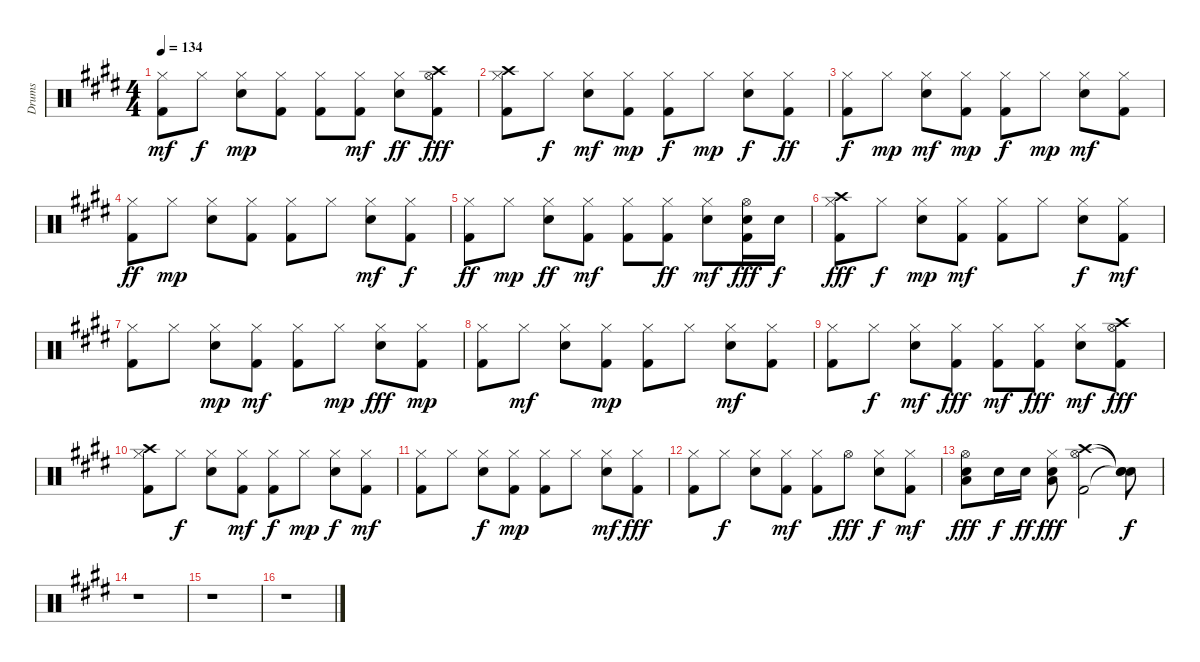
\track ("Drums" "Drums") {instrument percussion}
\staff {score}
\articulation defaults
\ts (4 4)
\tempo 134
\clef neutral
\ks e
("Kick (hit) 2" "Hi-Hat (closed)").8{dy mf} "Hi-Hat (closed)".8{dy f} ("Snare (hit) 2" "Hi-Hat (closed)").8{dy mp} ("Kick (hit) 2" "Hi-Hat (closed)").8 ("Kick (hit) 2" "Hi-Hat (closed)").8 ("Kick (hit) 2" "Hi-Hat (closed)").8{dy mf} ("Snare (hit) 2" "Hi-Hat (closed)").8{dy ff} ("Kick (hit) 2" "Hi-Hat (open)" "Crash high (hit)").8{dy fff} |
("Kick (hit) 2" "Hi-Hat (closed)" "Crash high (hit)").8 "Hi-Hat (closed)".8{dy f} ("Snare (hit) 2" "Hi-Hat (closed)").8{dy mf} ("Kick (hit) 2" "Hi-Hat (closed)").8{dy mp} ("Kick (hit) 2" "Hi-Hat (closed)").8{dy f} "Hi-Hat (closed)".8{dy mp} ("Snare (hit) 2" "Hi-Hat (closed)").8{dy f} ("Kick (hit) 2" "Hi-Hat (closed)").8{dy ff} |
("Kick (hit) 2" "Hi-Hat (closed)").8{dy f} "Hi-Hat (closed)".8{dy mp} ("Snare (hit) 2" "Hi-Hat (closed)").8{dy mf} ("Kick (hit) 2" "Hi-Hat (closed)").8{dy mp} ("Kick (hit) 2" "Hi-Hat (closed)").8{dy f} "Hi-Hat (closed)".8{dy mp} ("Snare (hit) 2" "Hi-Hat (closed)").8{dy mf} ("Kick (hit) 2" "Hi-Hat (closed)").8 |
("Kick (hit) 2" "Hi-Hat (closed)").8{dy ff} "Hi-Hat (closed)".8{dy mp} ("Snare (hit) 2" "Hi-Hat (closed)").8 ("Kick (hit) 2" "Hi-Hat (closed)").8 ("Kick (hit) 2" "Hi-Hat (closed)").8 "Hi-Hat (closed)".8 ("Snare (hit) 2" "Hi-Hat (closed)").8{dy mf} ("Kick (hit) 2" "Hi-Hat (closed)").8{dy f} |
("Kick (hit) 2" "Hi-Hat (closed)").8{dy ff} "Hi-Hat (closed)".8{dy mp} ("Snare (hit) 2" "Hi-Hat (closed)").8{dy ff} ("Kick (hit) 2" "Hi-Hat (closed)").8{dy mf} ("Kick (hit) 2" "Hi-Hat (closed)").8 ("Kick (hit) 2" "Hi-Hat (closed)").8{dy ff} ("Snare (hit) 2" "Hi-Hat (closed)").8{dy mf} ("Kick (hit) 2" "Snare (hit) 2" "Hi-Hat (open)").16{dy fff} "Snare (hit) 2".16{dy f} |
("Kick (hit) 2" "Hi-Hat (closed)" "Crash high (hit)").8{dy fff} "Hi-Hat (closed)".8{dy f} ("Snare (hit) 2" "Hi-Hat (closed)").8{dy mp} ("Kick (hit) 2" "Hi-Hat (closed)").8{dy mf} ("Kick (hit) 2" "Hi-Hat (closed)").8 "Hi-Hat (closed)".8 ("Snare (hit) 2" "Hi-Hat (closed)").8{dy f} ("Kick (hit) 2" "Hi-Hat (closed)").8{dy mf} |
("Kick (hit) 2" "Hi-Hat (closed)").8 "Hi-Hat (closed)".8 ("Snare (hit) 2" "Hi-Hat (closed)").8{dy mp} ("Kick (hit) 2" "Hi-Hat (closed)").8{dy mf} ("Kick (hit) 2" "Hi-Hat (closed)").8 "Hi-Hat (closed)".8{dy mp} ("Snare (hit) 2" "Hi-Hat (closed)").8{dy fff} ("Kick (hit) 2" "Hi-Hat (closed)").8{dy mp} |
("Kick (hit) 2" "Hi-Hat (closed)").8 "Hi-Hat (closed)".8{dy mf} ("Snare (hit) 2" "Hi-Hat (closed)").8 ("Kick (hit) 2" "Hi-Hat (closed)").8{dy mp} ("Kick (hit) 2" "Hi-Hat (closed)").8 "Hi-Hat (closed)".8 ("Snare (hit) 2" "Hi-Hat (closed)").8{dy mf} ("Kick (hit) 2" "Hi-Hat (closed)").8 |
("Kick (hit) 2" "Hi-Hat (closed)").8 "Hi-Hat (closed)".8{dy f} ("Snare (hit) 2" "Hi-Hat (closed)").8{dy mf} ("Kick (hit) 2" "Hi-Hat (closed)").8{dy fff} ("Kick (hit) 2" "Hi-Hat (closed)").8{dy mf} ("Kick (hit) 2" "Hi-Hat (closed)").8{dy fff} ("Snare (hit) 2" "Hi-Hat (closed)").8{dy mf} ("Kick (hit) 2" "Hi-Hat (open)" "Crash high (hit)").8{dy fff} |
("Kick (hit) 2" "Hi-Hat (closed)" "Crash high (hit)").8 "Hi-Hat (closed)".8{dy f} ("Snare (hit) 2" "Hi-Hat (closed)").8 ("Kick (hit) 2" "Hi-Hat (closed)").8{dy mf} ("Kick (hit) 2" "Hi-Hat (closed)").8{dy f} "Hi-Hat (closed)".8{dy mp} ("Snare (hit) 2" "Hi-Hat (closed)").8{dy f} ("Kick (hit) 2" "Hi-Hat (closed)").8{dy mf} |
("Kick (hit) 2" "Hi-Hat (closed)").8 "Hi-Hat (closed)".8 ("Snare (hit) 2" "Hi-Hat (closed)").8{dy f} ("Kick (hit) 2" "Hi-Hat (closed)").8{dy mp} ("Kick (hit) 2" "Hi-Hat (closed)").8 "Hi-Hat (closed)".8 ("Snare (hit) 2" "Hi-Hat (closed)").8{dy mf} ("Kick (hit) 2" "Hi-Hat (closed)").8{dy fff} |
("Kick (hit) 2" "Hi-Hat (closed)").8 "Hi-Hat (closed)".8{dy f} ("Snare (hit) 2" "Hi-Hat (closed)").8 ("Kick (hit) 2" "Hi-Hat (closed)").8{dy mf} ("Kick (hit) 2" "Hi-Hat (closed)").8 "Hi-Hat (open)".8{dy fff} ("Snare (hit) 2" "Hi-Hat (closed)").8{dy f} ("Kick (hit) 2" "Hi-Hat (closed)").8{dy mf} |
("Snare (hit) 2" "Low Floor Tom (hit)" "Hi-Hat (open)").8{dy fff} "Snare (hit) 2".16{dy f} "Snare (hit) 2".16{dy ff} ("Snare (hit) 2" "Hi-Hat (closed)" "Low Tom (hit)").8{dy fff} ("Kick (hit) 2" "Hi-Hat (open)" "Crash high (hit)").2 ("Snare (hit)"{t} "Snare (hit)"{t} "Snare (hit)"{t}).8{dy f} |
r.1 |
r.1 |
r.1
